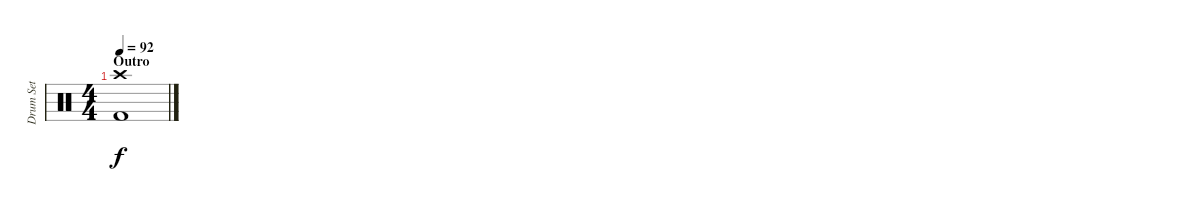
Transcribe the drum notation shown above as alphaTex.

\track ("Drum Set" "Drum Set") {instrument percussion}
\staff {score}
\articulation defaults
\ts (4 4)
\section ("" "Outro")
\tempo 92
\clef neutral
\ks c
("Crash high (hit)" "Kick (hit) 2").1{dy f}
